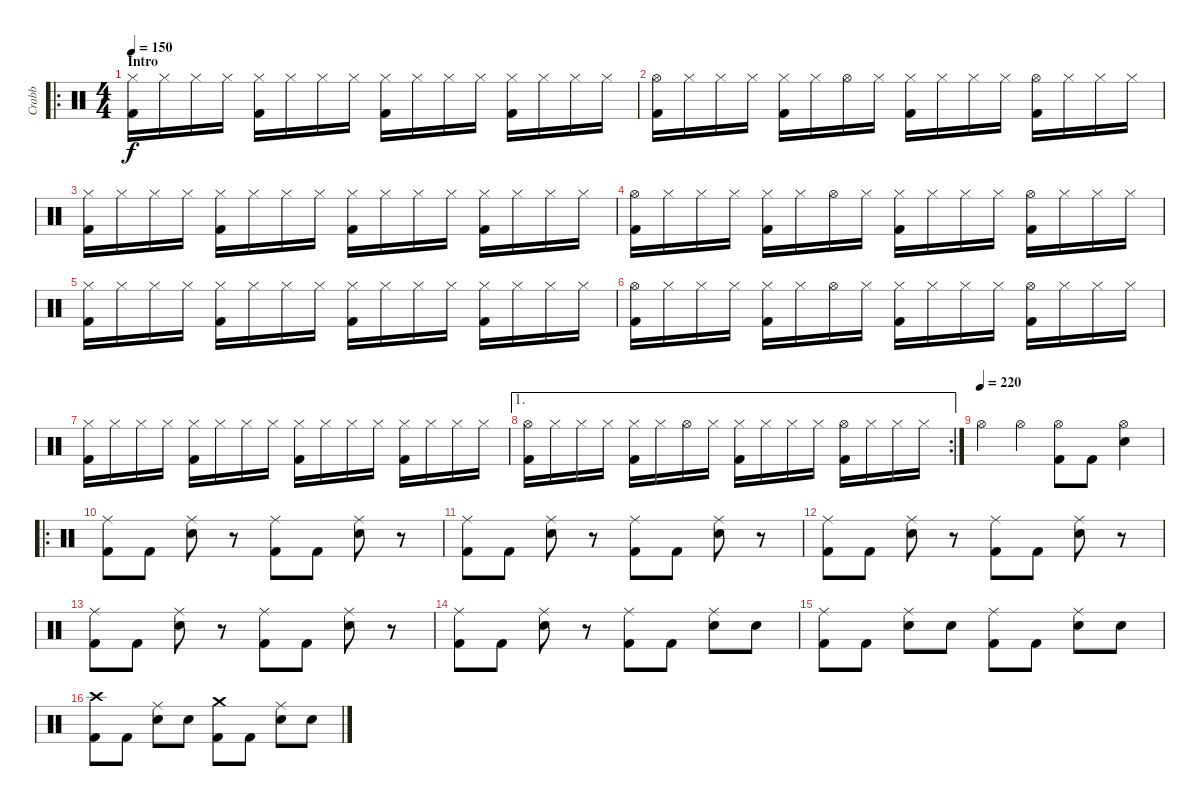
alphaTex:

\track ("Crabb" "Crabb") {instrument percussion}
\staff {score}
\articulation defaults
\ro
\ts (4 4)
\section ("" "Intro")
\tempo 150
\clef neutral
\ks c
("Hi-Hat (closed)" "Kick (hit) 2").16{dy f} "Hi-Hat (closed)".16 "Hi-Hat (closed)".16 "Hi-Hat (closed)".16 ("Hi-Hat (closed)" "Kick (hit) 2").16 "Hi-Hat (closed)".16 "Hi-Hat (closed)".16 "Hi-Hat (closed)".16 ("Hi-Hat (closed)" "Kick (hit) 2").16 "Hi-Hat (closed)".16 "Hi-Hat (closed)".16 "Hi-Hat (closed)".16 ("Hi-Hat (closed)" "Kick (hit) 2").16 "Hi-Hat (closed)".16 "Hi-Hat (closed)".16 "Hi-Hat (closed)".16 |
("Hi-Hat (open)" "Kick (hit) 2").16 "Hi-Hat (closed)".16 "Hi-Hat (closed)".16 "Hi-Hat (closed)".16 ("Hi-Hat (closed)" "Kick (hit) 2").16 "Hi-Hat (closed)".16 "Hi-Hat (open)".16 "Hi-Hat (closed)".16 ("Hi-Hat (closed)" "Kick (hit) 2").16 "Hi-Hat (closed)".16 "Hi-Hat (closed)".16 "Hi-Hat (closed)".16 ("Hi-Hat (open)" "Kick (hit) 2").16 "Hi-Hat (closed)".16 "Hi-Hat (closed)".16 "Hi-Hat (closed)".16 |
("Hi-Hat (closed)" "Kick (hit) 2").16 "Hi-Hat (closed)".16 "Hi-Hat (closed)".16 "Hi-Hat (closed)".16 ("Hi-Hat (closed)" "Kick (hit) 2").16 "Hi-Hat (closed)".16 "Hi-Hat (closed)".16 "Hi-Hat (closed)".16 ("Hi-Hat (closed)" "Kick (hit) 2").16 "Hi-Hat (closed)".16 "Hi-Hat (closed)".16 "Hi-Hat (closed)".16 ("Hi-Hat (closed)" "Kick (hit) 2").16 "Hi-Hat (closed)".16 "Hi-Hat (closed)".16 "Hi-Hat (closed)".16 |
("Hi-Hat (open)" "Kick (hit) 2").16 "Hi-Hat (closed)".16 "Hi-Hat (closed)".16 "Hi-Hat (closed)".16 ("Hi-Hat (closed)" "Kick (hit) 2").16 "Hi-Hat (closed)".16 "Hi-Hat (open)".16 "Hi-Hat (closed)".16 ("Hi-Hat (closed)" "Kick (hit) 2").16 "Hi-Hat (closed)".16 "Hi-Hat (closed)".16 "Hi-Hat (closed)".16 ("Hi-Hat (open)" "Kick (hit) 2").16 "Hi-Hat (closed)".16 "Hi-Hat (closed)".16 "Hi-Hat (closed)".16 |
("Hi-Hat (closed)" "Kick (hit) 2").16 "Hi-Hat (closed)".16 "Hi-Hat (closed)".16 "Hi-Hat (closed)".16 ("Hi-Hat (closed)" "Kick (hit) 2").16 "Hi-Hat (closed)".16 "Hi-Hat (closed)".16 "Hi-Hat (closed)".16 ("Hi-Hat (closed)" "Kick (hit) 2").16 "Hi-Hat (closed)".16 "Hi-Hat (closed)".16 "Hi-Hat (closed)".16 ("Hi-Hat (closed)" "Kick (hit) 2").16 "Hi-Hat (closed)".16 "Hi-Hat (closed)".16 "Hi-Hat (closed)".16 |
("Hi-Hat (open)" "Kick (hit) 2").16 "Hi-Hat (closed)".16 "Hi-Hat (closed)".16 "Hi-Hat (closed)".16 ("Hi-Hat (closed)" "Kick (hit) 2").16 "Hi-Hat (closed)".16 "Hi-Hat (open)".16 "Hi-Hat (closed)".16 ("Hi-Hat (closed)" "Kick (hit) 2").16 "Hi-Hat (closed)".16 "Hi-Hat (closed)".16 "Hi-Hat (closed)".16 ("Hi-Hat (open)" "Kick (hit) 2").16 "Hi-Hat (closed)".16 "Hi-Hat (closed)".16 "Hi-Hat (closed)".16 |
("Hi-Hat (closed)" "Kick (hit) 2").16 "Hi-Hat (closed)".16 "Hi-Hat (closed)".16 "Hi-Hat (closed)".16 ("Hi-Hat (closed)" "Kick (hit) 2").16 "Hi-Hat (closed)".16 "Hi-Hat (closed)".16 "Hi-Hat (closed)".16 ("Hi-Hat (closed)" "Kick (hit) 2").16 "Hi-Hat (closed)".16 "Hi-Hat (closed)".16 "Hi-Hat (closed)".16 ("Hi-Hat (closed)" "Kick (hit) 2").16 "Hi-Hat (closed)".16 "Hi-Hat (closed)".16 "Hi-Hat (closed)".16 |
\ae 1
\rc 2
("Hi-Hat (open)" "Kick (hit) 2").16 "Hi-Hat (closed)".16 "Hi-Hat (closed)".16 "Hi-Hat (closed)".16 ("Hi-Hat (closed)" "Kick (hit) 2").16 "Hi-Hat (closed)".16 "Hi-Hat (open)".16 "Hi-Hat (closed)".16 ("Hi-Hat (closed)" "Kick (hit) 2").16 "Hi-Hat (closed)".16 "Hi-Hat (closed)".16 "Hi-Hat (closed)".16 ("Hi-Hat (open)" "Kick (hit) 2").16 "Hi-Hat (closed)".16 "Hi-Hat (closed)".16 "Hi-Hat (closed)".16 |
\tempo (220)
"Hi-Hat (open)".4 "Hi-Hat (open)".4 ("Hi-Hat (open)" "Kick (hit) 2").8 "Kick (hit) 2".8 ("Hi-Hat (open)" "Electric Snare (hit)").4 |
\ro
("Ride (middle)" "Kick (hit) 2").8 "Kick (hit) 2".8 ("Ride (middle)" "Electric Snare (hit)").8 r.8 ("Ride (middle)" "Kick (hit) 2").8 "Kick (hit) 2".8 ("Ride (middle)" "Electric Snare (hit)").8 r.8 |
("Ride (middle)" "Kick (hit) 2").8 "Kick (hit) 2".8 ("Ride (middle)" "Electric Snare (hit)").8 r.8 ("Ride (middle)" "Kick (hit) 2").8 "Kick (hit) 2".8 ("Ride (middle)" "Electric Snare (hit)").8 r.8 |
("Ride (middle)" "Kick (hit) 2").8 "Kick (hit) 2".8 ("Ride (middle)" "Electric Snare (hit)").8 r.8 ("Ride (middle)" "Kick (hit) 2").8 "Kick (hit) 2".8 ("Ride (middle)" "Electric Snare (hit)").8 r.8 |
("Ride (middle)" "Kick (hit) 2").8 "Kick (hit) 2".8 ("Ride (middle)" "Electric Snare (hit)").8 r.8 ("Ride (middle)" "Kick (hit) 2").8 "Kick (hit) 2".8 ("Ride (middle)" "Electric Snare (hit)").8 r.8 |
("Ride (middle)" "Kick (hit) 2").8 "Kick (hit) 2".8 ("Ride (middle)" "Electric Snare (hit)").8 r.8 ("Ride (middle)" "Kick (hit) 2").8 "Kick (hit) 2".8 ("Ride (middle)" "Electric Snare (hit)").8 "Electric Snare (hit)".8 |
("Ride (middle)" "Kick (hit) 2").8 "Kick (hit) 2".8 ("Ride (middle)" "Electric Snare (hit)").8 "Electric Snare (hit)".8 ("Ride (middle)" "Kick (hit) 2").8 "Kick (hit) 2".8 ("Ride (middle)" "Electric Snare (hit)").8 "Electric Snare (hit)".8 |
("Crash high (hit)" "Kick (hit) 2").8 "Kick (hit) 2".8 ("Ride (middle)" "Electric Snare (hit)").8 "Electric Snare (hit)".8 ("Crash medium (hit)" "Kick (hit) 2").8 "Kick (hit) 2".8 ("Ride (middle)" "Electric Snare (hit)").8 "Electric Snare (hit)".8
